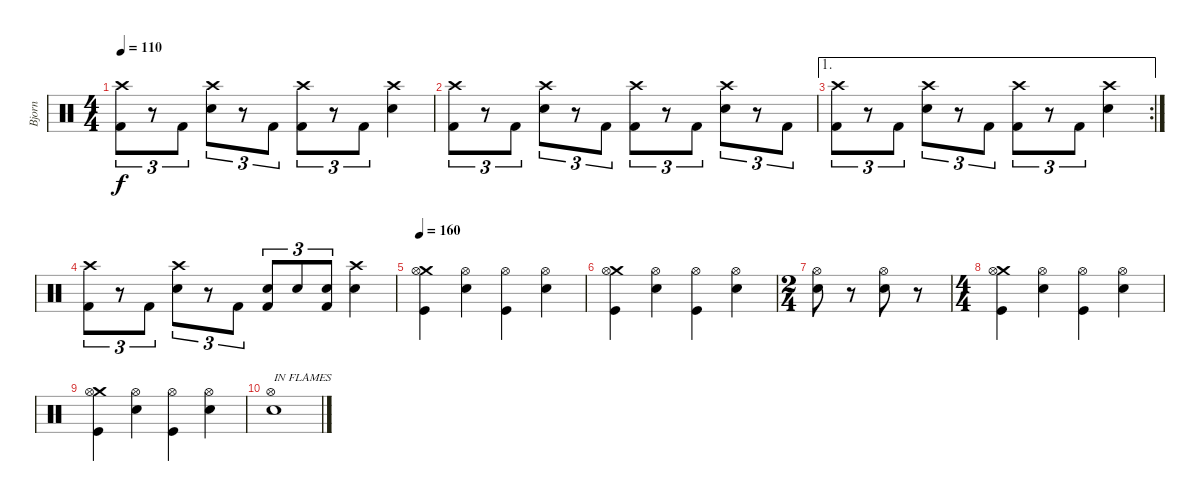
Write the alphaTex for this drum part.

\track ("Bjorn " "Bjorn ") {instrument percussion}
\staff {score}
\articulation defaults
\ts (4 4)
\tempo 110
\clef neutral
\ks c
("Crash high (hit)" "Kick (hit) 2").8{tu (3 2) dy f} r.8{tu (3 2)} "Kick (hit) 2".8{tu (3 2)} ("Crash high (hit)" "Electric Snare (hit)").8{tu (3 2)} r.8{tu (3 2)} "Kick (hit) 2".8{tu (3 2)} ("Crash high (hit)" "Kick (hit) 2").8{tu (3 2)} r.8{tu (3 2)} "Kick (hit) 2".8{tu (3 2)} ("Crash high (hit)" "Electric Snare (hit)").4 |
("Crash high (hit)" "Kick (hit) 2").8{tu (3 2)} r.8{tu (3 2)} "Kick (hit) 2".8{tu (3 2)} ("Crash high (hit)" "Electric Snare (hit)").8{tu (3 2)} r.8{tu (3 2)} "Kick (hit) 2".8{tu (3 2)} ("Crash high (hit)" "Kick (hit) 2").8{tu (3 2)} r.8{tu (3 2)} "Kick (hit) 2".8{tu (3 2)} ("Crash high (hit)" "Electric Snare (hit)").8{tu (3 2)} r.8{tu (3 2)} "Kick (hit) 2".8{tu (3 2)} |
\ae 1
\rc 2
("Crash high (hit)" "Kick (hit) 2").8{tu (3 2)} r.8{tu (3 2)} "Kick (hit) 2".8{tu (3 2)} ("Crash high (hit)" "Electric Snare (hit)").8{tu (3 2)} r.8{tu (3 2)} "Kick (hit) 2".8{tu (3 2)} ("Crash high (hit)" "Kick (hit) 2").8{tu (3 2)} r.8{tu (3 2)} "Kick (hit) 2".8{tu (3 2)} ("Crash high (hit)" "Electric Snare (hit)").4 |
("Crash high (hit)" "Kick (hit) 2").8{tu (3 2)} r.8{tu (3 2)} "Kick (hit) 2".8{tu (3 2)} ("Crash high (hit)" "Electric Snare (hit)").8{tu (3 2)} r.8{tu (3 2)} "Kick (hit) 2".8{tu (3 2)} ("Electric Snare (hit)" "Kick (hit) 2").8{tu (3 2)} "Electric Snare (hit)".8{tu (3 2)} ("Electric Snare (hit)" "Kick (hit) 2").8{tu (3 2)} ("Crash high (hit)" "Electric Snare (hit)").4 |
\tempo 160
("Crash medium (hit)" "Hi-Hat (open)" "Kick (hit)").4 ("Hi-Hat (open)" "Electric Snare (hit)").4 ("Hi-Hat (open)" "Kick (hit)").4 ("Hi-Hat (open)" "Electric Snare (hit)").4 |
("Crash medium (hit)" "Hi-Hat (open)" "Kick (hit)").4 ("Hi-Hat (open)" "Electric Snare (hit)").4 ("Hi-Hat (open)" "Kick (hit)").4 ("Hi-Hat (open)" "Electric Snare (hit)").4 |
\ts (2 4)
("Hi-Hat (open)" "Electric Snare (hit)").8 r.8 ("Hi-Hat (open)" "Electric Snare (hit)").8 r.8 |
\ts (4 4)
("Crash medium (hit)" "Hi-Hat (open)" "Kick (hit)").4 ("Hi-Hat (open)" "Electric Snare (hit)").4 ("Hi-Hat (open)" "Kick (hit)").4 ("Hi-Hat (open)" "Electric Snare (hit)").4 |
("Crash medium (hit)" "Hi-Hat (open)" "Kick (hit)").4 ("Hi-Hat (open)" "Electric Snare (hit)").4 ("Hi-Hat (open)" "Kick (hit)").4 ("Hi-Hat (open)" "Electric Snare (hit)").4 |
("Hi-Hat (open)" "Electric Snare (hit)").1{txt "IN FLAMES"}
